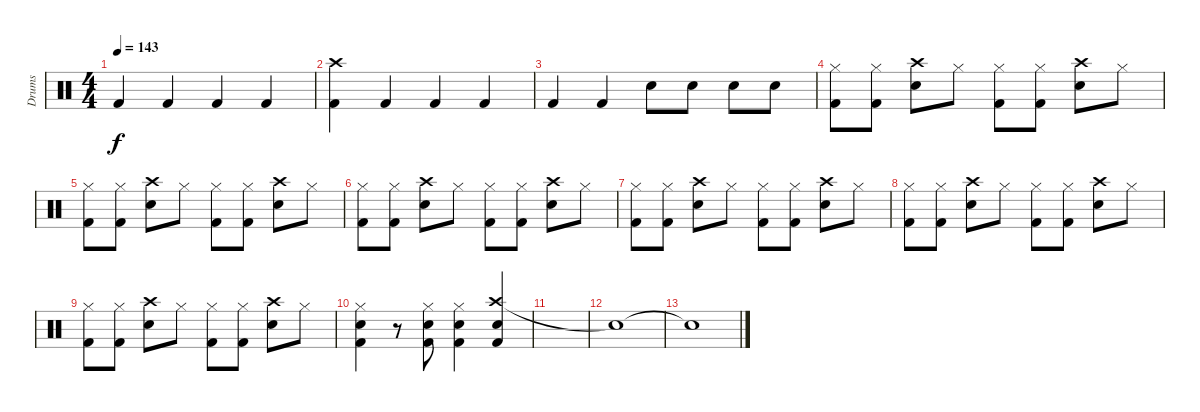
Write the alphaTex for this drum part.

\track ("Drums" "Drums") {instrument percussion}
\staff {score}
\articulation defaults
\ts (4 4)
\tempo 143
\clef neutral
\ks c "Kick (hit) 2".4{dy f} "Kick (hit) 2".4 "Kick (hit) 2".4 "Kick (hit) 2".4
|
("Crash high (hit)" "Kick (hit) 2").4 "Kick (hit) 2".4 "Kick (hit) 2".4 "Kick (hit) 2".4 |
"Kick (hit) 2".4 "Kick (hit) 2".4 "Snare (hit) 2".8 "Snare (hit) 2".8 "Electric Snare (hit)".8 "Electric Snare (hit)".8 |
("Hi-Hat (closed)" "Kick (hit) 2").8 ("Hi-Hat (closed)" "Kick (hit) 2").8 ("Crash high (hit)" "Electric Snare (hit)").8 "Hi-Hat (closed)".8 ("Hi-Hat (closed)" "Kick (hit) 2").8 ("Hi-Hat (closed)" "Kick (hit) 2").8 ("Crash high (hit)" "Electric Snare (hit)").8 "Hi-Hat (closed)".8 |
("Hi-Hat (closed)" "Kick (hit) 2").8 ("Hi-Hat (closed)" "Kick (hit) 2").8 ("Crash high (hit)" "Electric Snare (hit)").8 "Hi-Hat (closed)".8 ("Hi-Hat (closed)" "Kick (hit) 2").8 ("Hi-Hat (closed)" "Kick (hit) 2").8 ("Crash high (hit)" "Electric Snare (hit)").8 "Hi-Hat (closed)".8 |
("Hi-Hat (closed)" "Kick (hit) 2").8 ("Hi-Hat (closed)" "Kick (hit) 2").8 ("Crash high (hit)" "Electric Snare (hit)").8 "Hi-Hat (closed)".8 ("Hi-Hat (closed)" "Kick (hit) 2").8 ("Hi-Hat (closed)" "Kick (hit) 2").8 ("Crash high (hit)" "Electric Snare (hit)").8 "Hi-Hat (closed)".8 |
("Hi-Hat (closed)" "Kick (hit) 2").8 ("Hi-Hat (closed)" "Kick (hit) 2").8 ("Crash high (hit)" "Electric Snare (hit)").8 "Hi-Hat (closed)".8 ("Hi-Hat (closed)" "Kick (hit) 2").8 ("Hi-Hat (closed)" "Kick (hit) 2").8 ("Crash high (hit)" "Electric Snare (hit)").8 "Hi-Hat (closed)".8 |
("Hi-Hat (closed)" "Kick (hit) 2").8 ("Hi-Hat (closed)" "Kick (hit) 2").8 ("Crash high (hit)" "Electric Snare (hit)").8 "Hi-Hat (closed)".8 ("Hi-Hat (closed)" "Kick (hit) 2").8 ("Hi-Hat (closed)" "Kick (hit) 2").8 ("Crash high (hit)" "Electric Snare (hit)").8 "Hi-Hat (closed)".8 |
("Hi-Hat (closed)" "Kick (hit) 2").8 ("Hi-Hat (closed)" "Kick (hit) 2").8 ("Crash high (hit)" "Electric Snare (hit)").8 "Hi-Hat (closed)".8 ("Hi-Hat (closed)" "Kick (hit) 2").8 ("Hi-Hat (closed)" "Kick (hit) 2").8 ("Crash high (hit)" "Electric Snare (hit)").8 "Hi-Hat (closed)".8 |
("Hi-Hat (closed)" "Electric Snare (hit)" "Kick (hit) 2").4 r.8 ("Hi-Hat (closed)" "Electric Snare (hit)" "Kick (hit) 2").8 ("Hi-Hat (closed)" "Electric Snare (hit)" "Kick (hit) 2").4 ("Crash high (hit)" "Electric Snare (hit)" "Kick (hit) 2").4 |
|
"Snare (hit)"{t}.1 |
"Snare (hit)"{t}.1
